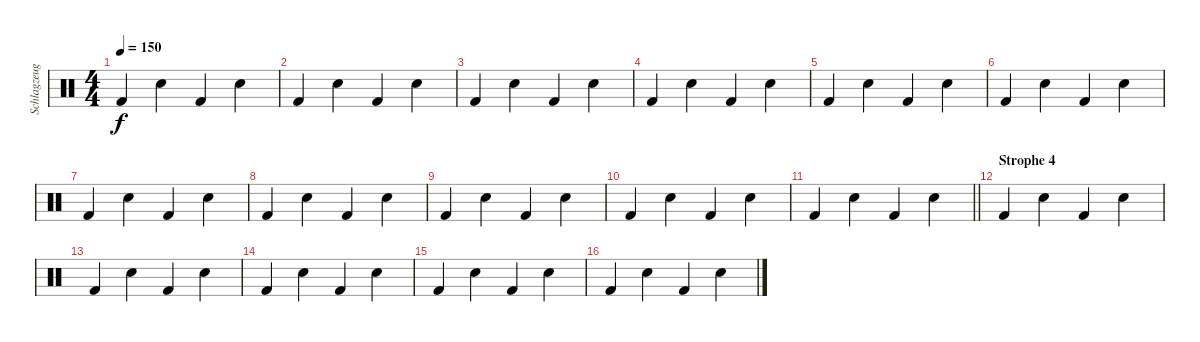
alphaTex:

\track ("Schlagzeug" "Schlagzeug") {instrument percussion}
\staff {score}
\articulation defaults
\ts (4 4)
\tempo 150
\clef neutral
\ks c "Kick (hit) 2".4{dy f} "Electric Snare (hit)".4 "Kick (hit) 2".4 "Electric Snare (hit)".4
|
"Kick (hit) 2".4 "Electric Snare (hit)".4 "Kick (hit) 2".4 "Electric Snare (hit)".4 |
"Kick (hit) 2".4 "Electric Snare (hit)".4 "Kick (hit) 2".4 "Electric Snare (hit)".4 |
"Kick (hit) 2".4 "Electric Snare (hit)".4 "Kick (hit) 2".4 "Electric Snare (hit)".4 |
"Kick (hit) 2".4 "Electric Snare (hit)".4 "Kick (hit) 2".4 "Electric Snare (hit)".4 |
"Kick (hit) 2".4 "Electric Snare (hit)".4 "Kick (hit) 2".4 "Electric Snare (hit)".4 |
"Kick (hit) 2".4 "Electric Snare (hit)".4 "Kick (hit) 2".4 "Electric Snare (hit)".4 |
"Kick (hit) 2".4 "Electric Snare (hit)".4 "Kick (hit) 2".4 "Electric Snare (hit)".4 |
"Kick (hit) 2".4 "Electric Snare (hit)".4 "Kick (hit) 2".4 "Electric Snare (hit)".4 |
"Kick (hit) 2".4 "Electric Snare (hit)".4 "Kick (hit) 2".4 "Electric Snare (hit)".4 |
\barLineRight lightlight "Kick (hit) 2".4 "Electric Snare (hit)".4 "Kick (hit) 2".4 "Electric Snare (hit)".4
|
\section ("" "Strophe 4")
"Kick (hit) 2".4 "Electric Snare (hit)".4 "Kick (hit) 2".4 "Electric Snare (hit)".4 |
"Kick (hit) 2".4 "Electric Snare (hit)".4 "Kick (hit) 2".4 "Electric Snare (hit)".4 |
"Kick (hit) 2".4 "Electric Snare (hit)".4 "Kick (hit) 2".4 "Electric Snare (hit)".4 |
"Kick (hit) 2".4 "Electric Snare (hit)".4 "Kick (hit) 2".4 "Electric Snare (hit)".4 |
"Kick (hit) 2".4 "Electric Snare (hit)".4 "Kick (hit) 2".4 "Electric Snare (hit)".4
